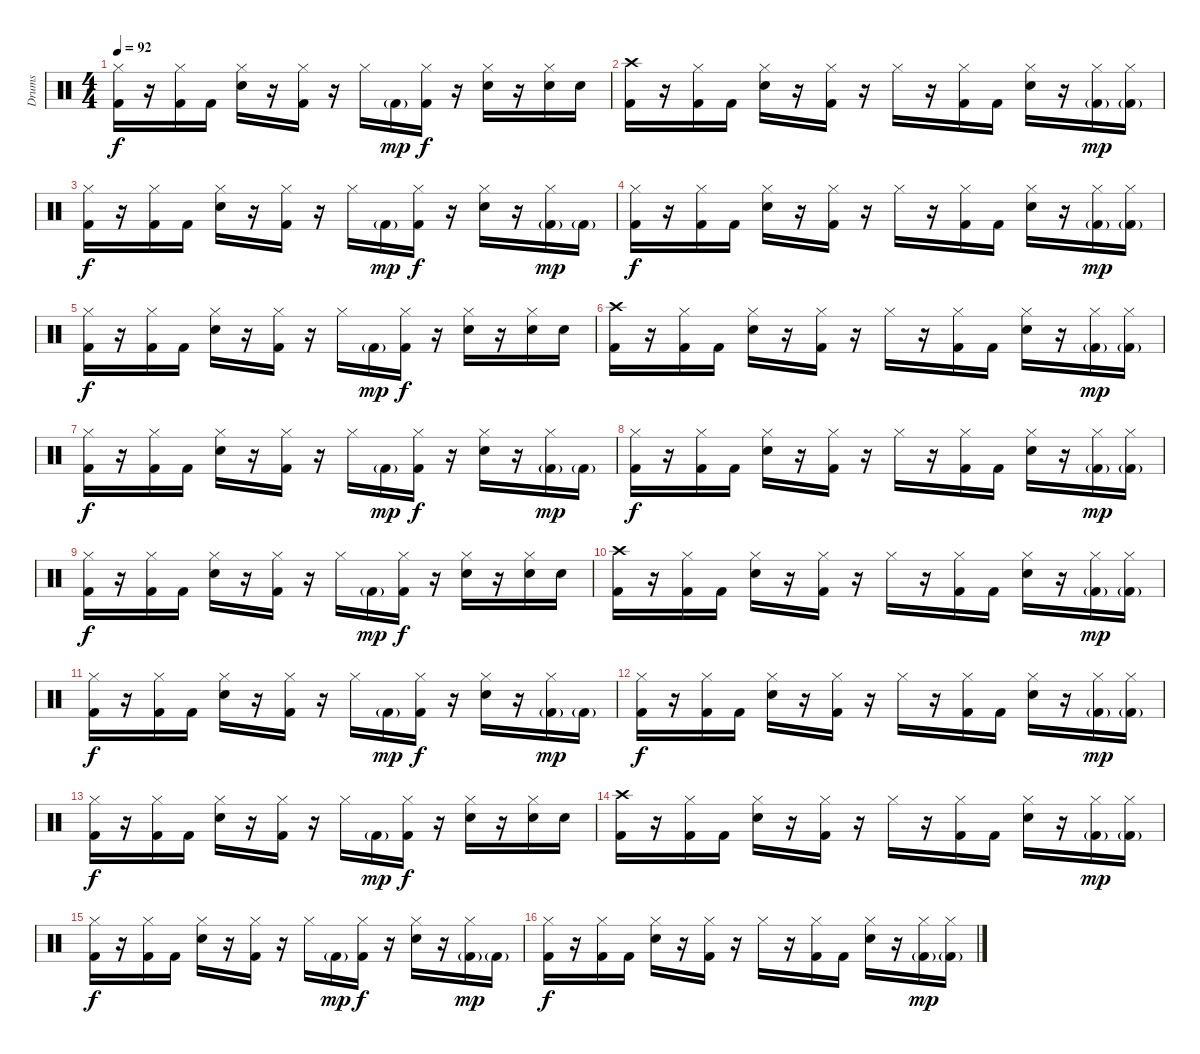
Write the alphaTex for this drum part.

\track ("Drums" "Drums") {instrument percussion}
\staff {score}
\articulation defaults
\ts (4 4)
\tempo 92
\clef neutral
\ks c
("Hi-Hat (closed)" "Kick (hit) 2").16{dy f} r.16 ("Hi-Hat (closed)" "Kick (hit) 2").16 "Kick (hit) 2".16 ("Hi-Hat (closed)" "Snare (hit) 2").16 r.16 ("Hi-Hat (closed)" "Kick (hit) 2").16 r.16 "Hi-Hat (closed)".16 "Kick (hit) 2"{g}.16{dy mp} ("Hi-Hat (closed)" "Kick (hit) 2").16{dy f} r.16 ("Hi-Hat (closed)" "Snare (hit) 2").16 r.16 ("Hi-Hat (closed)" "Snare (hit) 2").16 "Snare (hit) 2".16 |
("Crash high (hit)" "Kick (hit) 2").16 r.16 ("Hi-Hat (closed)" "Kick (hit) 2").16 "Kick (hit) 2".16 ("Hi-Hat (closed)" "Snare (hit) 2").16 r.16 ("Hi-Hat (closed)" "Kick (hit) 2").16 r.16 "Hi-Hat (closed)".16 r.16 ("Hi-Hat (closed)" "Kick (hit) 2").16 "Kick (hit) 2".16 ("Hi-Hat (closed)" "Snare (hit) 2").16 r.16 ("Hi-Hat (closed)" "Kick (hit) 2"{g}).16{dy mp} ("Hi-Hat (closed)" "Kick (hit) 2"{g}).16 |
("Hi-Hat (closed)" "Kick (hit) 2").16{dy f} r.16 ("Hi-Hat (closed)" "Kick (hit) 2").16 "Kick (hit) 2".16 ("Hi-Hat (closed)" "Snare (hit) 2").16 r.16 ("Hi-Hat (closed)" "Kick (hit) 2").16 r.16 "Hi-Hat (closed)".16 "Kick (hit) 2"{g}.16{dy mp} ("Hi-Hat (closed)" "Kick (hit) 2").16{dy f} r.16 ("Hi-Hat (closed)" "Snare (hit) 2").16 r.16 ("Hi-Hat (closed)" "Kick (hit) 2"{g}).16{dy mp} "Kick (hit) 2"{g}.16 |
("Hi-Hat (closed)" "Kick (hit) 2").16{dy f} r.16 ("Hi-Hat (closed)" "Kick (hit) 2").16 "Kick (hit) 2".16 ("Hi-Hat (closed)" "Snare (hit) 2").16 r.16 ("Hi-Hat (closed)" "Kick (hit) 2").16 r.16 "Hi-Hat (closed)".16 r.16 ("Hi-Hat (closed)" "Kick (hit) 2").16 "Kick (hit) 2".16 ("Hi-Hat (closed)" "Snare (hit) 2").16 r.16 ("Hi-Hat (closed)" "Kick (hit) 2"{g}).16{dy mp} ("Hi-Hat (closed)" "Kick (hit) 2"{g}).16 |
("Hi-Hat (closed)" "Kick (hit) 2").16{dy f} r.16 ("Hi-Hat (closed)" "Kick (hit) 2").16 "Kick (hit) 2".16 ("Hi-Hat (closed)" "Snare (hit) 2").16 r.16 ("Hi-Hat (closed)" "Kick (hit) 2").16 r.16 "Hi-Hat (closed)".16 "Kick (hit) 2"{g}.16{dy mp} ("Hi-Hat (closed)" "Kick (hit) 2").16{dy f} r.16 ("Hi-Hat (closed)" "Snare (hit) 2").16 r.16 ("Hi-Hat (closed)" "Snare (hit) 2").16 "Snare (hit) 2".16 |
("Crash high (hit)" "Kick (hit) 2").16 r.16 ("Hi-Hat (closed)" "Kick (hit) 2").16 "Kick (hit) 2".16 ("Hi-Hat (closed)" "Snare (hit) 2").16 r.16 ("Hi-Hat (closed)" "Kick (hit) 2").16 r.16 "Hi-Hat (closed)".16 r.16 ("Hi-Hat (closed)" "Kick (hit) 2").16 "Kick (hit) 2".16 ("Hi-Hat (closed)" "Snare (hit) 2").16 r.16 ("Hi-Hat (closed)" "Kick (hit) 2"{g}).16{dy mp} ("Hi-Hat (closed)" "Kick (hit) 2"{g}).16 |
("Hi-Hat (closed)" "Kick (hit) 2").16{dy f} r.16 ("Hi-Hat (closed)" "Kick (hit) 2").16 "Kick (hit) 2".16 ("Hi-Hat (closed)" "Snare (hit) 2").16 r.16 ("Hi-Hat (closed)" "Kick (hit) 2").16 r.16 "Hi-Hat (closed)".16 "Kick (hit) 2"{g}.16{dy mp} ("Hi-Hat (closed)" "Kick (hit) 2").16{dy f} r.16 ("Hi-Hat (closed)" "Snare (hit) 2").16 r.16 ("Hi-Hat (closed)" "Kick (hit) 2"{g}).16{dy mp} "Kick (hit) 2"{g}.16 |
("Hi-Hat (closed)" "Kick (hit) 2").16{dy f} r.16 ("Hi-Hat (closed)" "Kick (hit) 2").16 "Kick (hit) 2".16 ("Hi-Hat (closed)" "Snare (hit) 2").16 r.16 ("Hi-Hat (closed)" "Kick (hit) 2").16 r.16 "Hi-Hat (closed)".16 r.16 ("Hi-Hat (closed)" "Kick (hit) 2").16 "Kick (hit) 2".16 ("Hi-Hat (closed)" "Snare (hit) 2").16 r.16 ("Hi-Hat (closed)" "Kick (hit) 2"{g}).16{dy mp} ("Hi-Hat (closed)" "Kick (hit) 2"{g}).16 |
("Hi-Hat (closed)" "Kick (hit) 2").16{dy f} r.16 ("Hi-Hat (closed)" "Kick (hit) 2").16 "Kick (hit) 2".16 ("Hi-Hat (closed)" "Snare (hit) 2").16 r.16 ("Hi-Hat (closed)" "Kick (hit) 2").16 r.16 "Hi-Hat (closed)".16 "Kick (hit) 2"{g}.16{dy mp} ("Hi-Hat (closed)" "Kick (hit) 2").16{dy f} r.16 ("Hi-Hat (closed)" "Snare (hit) 2").16 r.16 ("Hi-Hat (closed)" "Snare (hit) 2").16 "Snare (hit) 2".16 |
("Crash high (hit)" "Kick (hit) 2").16 r.16 ("Hi-Hat (closed)" "Kick (hit) 2").16 "Kick (hit) 2".16 ("Hi-Hat (closed)" "Snare (hit) 2").16 r.16 ("Hi-Hat (closed)" "Kick (hit) 2").16 r.16 "Hi-Hat (closed)".16 r.16 ("Hi-Hat (closed)" "Kick (hit) 2").16 "Kick (hit) 2".16 ("Hi-Hat (closed)" "Snare (hit) 2").16 r.16 ("Hi-Hat (closed)" "Kick (hit) 2"{g}).16{dy mp} ("Hi-Hat (closed)" "Kick (hit) 2"{g}).16 |
("Hi-Hat (closed)" "Kick (hit) 2").16{dy f} r.16 ("Hi-Hat (closed)" "Kick (hit) 2").16 "Kick (hit) 2".16 ("Hi-Hat (closed)" "Snare (hit) 2").16 r.16 ("Hi-Hat (closed)" "Kick (hit) 2").16 r.16 "Hi-Hat (closed)".16 "Kick (hit) 2"{g}.16{dy mp} ("Hi-Hat (closed)" "Kick (hit) 2").16{dy f} r.16 ("Hi-Hat (closed)" "Snare (hit) 2").16 r.16 ("Hi-Hat (closed)" "Kick (hit) 2"{g}).16{dy mp} "Kick (hit) 2"{g}.16 |
("Hi-Hat (closed)" "Kick (hit) 2").16{dy f} r.16 ("Hi-Hat (closed)" "Kick (hit) 2").16 "Kick (hit) 2".16 ("Hi-Hat (closed)" "Snare (hit) 2").16 r.16 ("Hi-Hat (closed)" "Kick (hit) 2").16 r.16 "Hi-Hat (closed)".16 r.16 ("Hi-Hat (closed)" "Kick (hit) 2").16 "Kick (hit) 2".16 ("Hi-Hat (closed)" "Snare (hit) 2").16 r.16 ("Hi-Hat (closed)" "Kick (hit) 2"{g}).16{dy mp} ("Hi-Hat (closed)" "Kick (hit) 2"{g}).16 |
("Hi-Hat (closed)" "Kick (hit) 2").16{dy f} r.16 ("Hi-Hat (closed)" "Kick (hit) 2").16 "Kick (hit) 2".16 ("Hi-Hat (closed)" "Snare (hit) 2").16 r.16 ("Hi-Hat (closed)" "Kick (hit) 2").16 r.16 "Hi-Hat (closed)".16 "Kick (hit) 2"{g}.16{dy mp} ("Hi-Hat (closed)" "Kick (hit) 2").16{dy f} r.16 ("Hi-Hat (closed)" "Snare (hit) 2").16 r.16 ("Hi-Hat (closed)" "Snare (hit) 2").16 "Snare (hit) 2".16 |
("Crash high (hit)" "Kick (hit) 2").16 r.16 ("Hi-Hat (closed)" "Kick (hit) 2").16 "Kick (hit) 2".16 ("Hi-Hat (closed)" "Snare (hit) 2").16 r.16 ("Hi-Hat (closed)" "Kick (hit) 2").16 r.16 "Hi-Hat (closed)".16 r.16 ("Hi-Hat (closed)" "Kick (hit) 2").16 "Kick (hit) 2".16 ("Hi-Hat (closed)" "Snare (hit) 2").16 r.16 ("Hi-Hat (closed)" "Kick (hit) 2"{g}).16{dy mp} ("Hi-Hat (closed)" "Kick (hit) 2"{g}).16 |
("Hi-Hat (closed)" "Kick (hit) 2").16{dy f} r.16 ("Hi-Hat (closed)" "Kick (hit) 2").16 "Kick (hit) 2".16 ("Hi-Hat (closed)" "Snare (hit) 2").16 r.16 ("Hi-Hat (closed)" "Kick (hit) 2").16 r.16 "Hi-Hat (closed)".16 "Kick (hit) 2"{g}.16{dy mp} ("Hi-Hat (closed)" "Kick (hit) 2").16{dy f} r.16 ("Hi-Hat (closed)" "Snare (hit) 2").16 r.16 ("Hi-Hat (closed)" "Kick (hit) 2"{g}).16{dy mp} "Kick (hit) 2"{g}.16 |
("Hi-Hat (closed)" "Kick (hit) 2").16{dy f} r.16 ("Hi-Hat (closed)" "Kick (hit) 2").16 "Kick (hit) 2".16 ("Hi-Hat (closed)" "Snare (hit) 2").16 r.16 ("Hi-Hat (closed)" "Kick (hit) 2").16 r.16 "Hi-Hat (closed)".16 r.16 ("Hi-Hat (closed)" "Kick (hit) 2").16 "Kick (hit) 2".16 ("Hi-Hat (closed)" "Snare (hit) 2").16 r.16 ("Hi-Hat (closed)" "Kick (hit) 2"{g}).16{dy mp} ("Hi-Hat (closed)" "Kick (hit) 2"{g}).16
